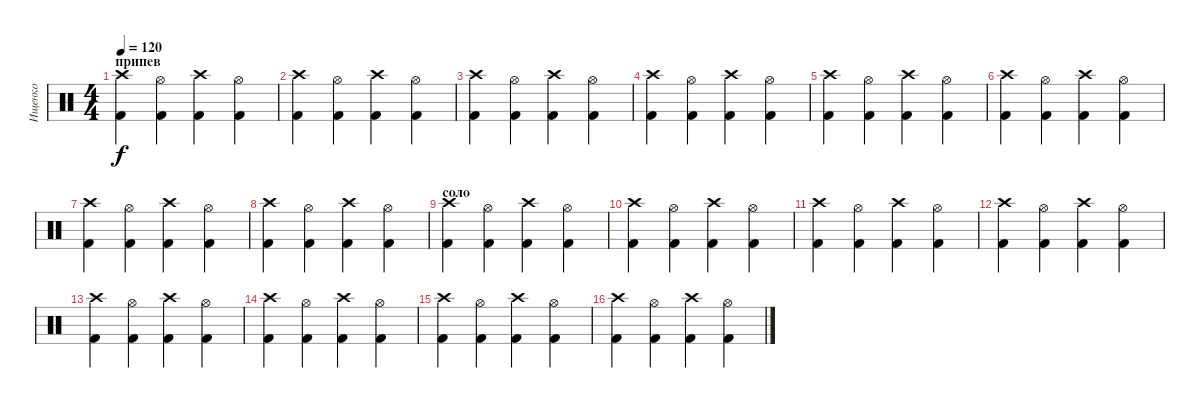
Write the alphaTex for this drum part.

\track ("Ищенко" "Ищенко") {instrument percussion}
\staff {score}
\articulation defaults
\ts (4 4)
\section ("" "припев")
\tempo 120
\clef neutral
\ks c
("Kick (hit) 2" "Crash high (hit)").4{dy f} ("Kick (hit) 2" "Hi-Hat (open)").4 ("Kick (hit) 2" "Crash high (hit)").4 ("Kick (hit) 2" "Hi-Hat (open)").4 |
("Kick (hit) 2" "Crash high (hit)").4 ("Kick (hit) 2" "Hi-Hat (open)").4 ("Kick (hit) 2" "Crash high (hit)").4 ("Kick (hit) 2" "Hi-Hat (open)").4 |
("Kick (hit) 2" "Crash high (hit)").4 ("Kick (hit) 2" "Hi-Hat (open)").4 ("Kick (hit) 2" "Crash high (hit)").4 ("Kick (hit) 2" "Hi-Hat (open)").4 |
("Kick (hit) 2" "Crash high (hit)").4 ("Kick (hit) 2" "Hi-Hat (open)").4 ("Kick (hit) 2" "Crash high (hit)").4 ("Kick (hit) 2" "Hi-Hat (open)").4 |
("Kick (hit) 2" "Crash high (hit)").4 ("Kick (hit) 2" "Hi-Hat (open)").4 ("Kick (hit) 2" "Crash high (hit)").4 ("Kick (hit) 2" "Hi-Hat (open)").4 |
("Kick (hit) 2" "Crash high (hit)").4 ("Kick (hit) 2" "Hi-Hat (open)").4 ("Kick (hit) 2" "Crash high (hit)").4 ("Kick (hit) 2" "Hi-Hat (open)").4 |
("Kick (hit) 2" "Crash high (hit)").4 ("Kick (hit) 2" "Hi-Hat (open)").4 ("Kick (hit) 2" "Crash high (hit)").4 ("Kick (hit) 2" "Hi-Hat (open)").4 |
("Kick (hit) 2" "Crash high (hit)").4 ("Kick (hit) 2" "Hi-Hat (open)").4 ("Kick (hit) 2" "Crash high (hit)").4 ("Kick (hit) 2" "Hi-Hat (open)").4 |
\section ("" "соло")
("Kick (hit) 2" "Crash high (hit)").4 ("Kick (hit) 2" "Hi-Hat (open)").4 ("Kick (hit) 2" "Crash high (hit)").4 ("Kick (hit) 2" "Hi-Hat (open)").4 |
("Kick (hit) 2" "Crash high (hit)").4 ("Kick (hit) 2" "Hi-Hat (open)").4 ("Kick (hit) 2" "Crash high (hit)").4 ("Kick (hit) 2" "Hi-Hat (open)").4 |
("Kick (hit) 2" "Crash high (hit)").4 ("Kick (hit) 2" "Hi-Hat (open)").4 ("Kick (hit) 2" "Crash high (hit)").4 ("Kick (hit) 2" "Hi-Hat (open)").4 |
("Kick (hit) 2" "Crash high (hit)").4 ("Kick (hit) 2" "Hi-Hat (open)").4 ("Kick (hit) 2" "Crash high (hit)").4 ("Kick (hit) 2" "Hi-Hat (open)").4 |
("Kick (hit) 2" "Crash high (hit)").4 ("Kick (hit) 2" "Hi-Hat (open)").4 ("Kick (hit) 2" "Crash high (hit)").4 ("Kick (hit) 2" "Hi-Hat (open)").4 |
("Kick (hit) 2" "Crash high (hit)").4 ("Kick (hit) 2" "Hi-Hat (open)").4 ("Kick (hit) 2" "Crash high (hit)").4 ("Kick (hit) 2" "Hi-Hat (open)").4 |
("Kick (hit) 2" "Crash high (hit)").4 ("Kick (hit) 2" "Hi-Hat (open)").4 ("Kick (hit) 2" "Crash high (hit)").4 ("Kick (hit) 2" "Hi-Hat (open)").4 |
("Kick (hit) 2" "Crash high (hit)").4 ("Kick (hit) 2" "Hi-Hat (open)").4 ("Kick (hit) 2" "Crash high (hit)").4 ("Kick (hit) 2" "Hi-Hat (open)").4
